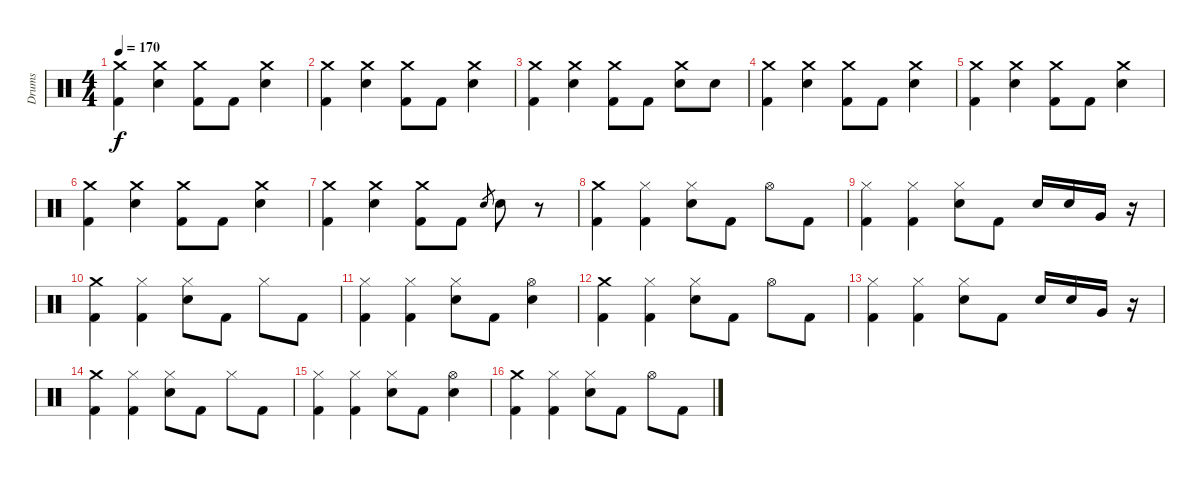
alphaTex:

\track ("Drums" "Drums") {instrument percussion}
\staff {score}
\articulation defaults
\ts (4 4)
\tempo 170
\clef neutral
\ks c
("Crash medium (hit)" "Kick (hit) 2").4{dy f} ("Crash medium (hit)" "Electric Snare (hit)").4 ("Crash medium (hit)" "Kick (hit) 2").8 "Kick (hit) 2".8 ("Crash medium (hit)" "Electric Snare (hit)").4 |
("Crash medium (hit)" "Kick (hit) 2").4 ("Crash medium (hit)" "Electric Snare (hit)").4 ("Crash medium (hit)" "Kick (hit) 2").8 "Kick (hit) 2".8 ("Crash medium (hit)" "Electric Snare (hit)").4 |
("Crash medium (hit)" "Kick (hit) 2").4 ("Crash medium (hit)" "Electric Snare (hit)").4 ("Crash medium (hit)" "Kick (hit) 2").8 "Kick (hit) 2".8 ("Crash medium (hit)" "Electric Snare (hit)").8 "Electric Snare (hit)".8 |
("Crash medium (hit)" "Kick (hit) 2").4 ("Crash medium (hit)" "Electric Snare (hit)").4 ("Crash medium (hit)" "Kick (hit) 2").8 "Kick (hit) 2".8 ("Crash medium (hit)" "Electric Snare (hit)").4 |
("Crash medium (hit)" "Kick (hit) 2").4 ("Crash medium (hit)" "Electric Snare (hit)").4 ("Crash medium (hit)" "Kick (hit) 2").8 "Kick (hit) 2".8 ("Crash medium (hit)" "Electric Snare (hit)").4 |
("Crash medium (hit)" "Kick (hit) 2").4 ("Crash medium (hit)" "Electric Snare (hit)").4 ("Crash medium (hit)" "Kick (hit) 2").8 "Kick (hit) 2".8 ("Crash medium (hit)" "Electric Snare (hit)").4 |
("Crash medium (hit)" "Kick (hit) 2").4 ("Crash medium (hit)" "Electric Snare (hit)").4 ("Crash medium (hit)" "Kick (hit) 2").8 "Kick (hit) 2".8 "Electric Snare (hit)".8{gr} "Electric Snare (hit)".8 r.8 |
("Crash medium (hit)" "Kick (hit) 2").4 ("Hi-Hat (closed)" "Kick (hit) 2").4 ("Hi-Hat (closed)" "Electric Snare (hit)").8 "Kick (hit) 2".8 "Hi-Hat (open)".8 "Kick (hit) 2".8 |
("Hi-Hat (closed)" "Kick (hit) 2").4 ("Hi-Hat (closed)" "Kick (hit) 2").4 ("Hi-Hat (closed)" "Electric Snare (hit)").8 "Kick (hit) 2".8 "Electric Snare (hit)".16 "Electric Snare (hit)".16 "Very Low Tom (hit)".16 r.16 |
("Crash medium (hit)" "Kick (hit) 2").4 ("Hi-Hat (closed)" "Kick (hit) 2").4 ("Hi-Hat (closed)" "Electric Snare (hit)").8 "Kick (hit) 2".8 "Hi-Hat (closed)".8 "Kick (hit) 2".8 |
("Hi-Hat (closed)" "Kick (hit) 2").4 ("Hi-Hat (closed)" "Kick (hit) 2").4 ("Hi-Hat (closed)" "Electric Snare (hit)").8 "Kick (hit) 2".8 ("Hi-Hat (open)" "Electric Snare (hit)").4 |
("Crash medium (hit)" "Kick (hit) 2").4 ("Hi-Hat (closed)" "Kick (hit) 2").4 ("Hi-Hat (closed)" "Electric Snare (hit)").8 "Kick (hit) 2".8 "Hi-Hat (open)".8 "Kick (hit) 2".8 |
("Hi-Hat (closed)" "Kick (hit) 2").4 ("Hi-Hat (closed)" "Kick (hit) 2").4 ("Hi-Hat (closed)" "Electric Snare (hit)").8 "Kick (hit) 2".8 "Electric Snare (hit)".16 "Electric Snare (hit)".16 "Very Low Tom (hit)".16 r.16 |
("Crash medium (hit)" "Kick (hit) 2").4 ("Hi-Hat (closed)" "Kick (hit) 2").4 ("Hi-Hat (closed)" "Electric Snare (hit)").8 "Kick (hit) 2".8 "Hi-Hat (closed)".8 "Kick (hit) 2".8 |
("Hi-Hat (closed)" "Kick (hit) 2").4 ("Hi-Hat (closed)" "Kick (hit) 2").4 ("Hi-Hat (closed)" "Electric Snare (hit)").8 "Kick (hit) 2".8 ("Hi-Hat (open)" "Electric Snare (hit)").4 |
("Crash medium (hit)" "Kick (hit) 2").4 ("Hi-Hat (closed)" "Kick (hit) 2").4 ("Hi-Hat (closed)" "Electric Snare (hit)").8 "Kick (hit) 2".8 "Hi-Hat (open)".8 "Kick (hit) 2".8
